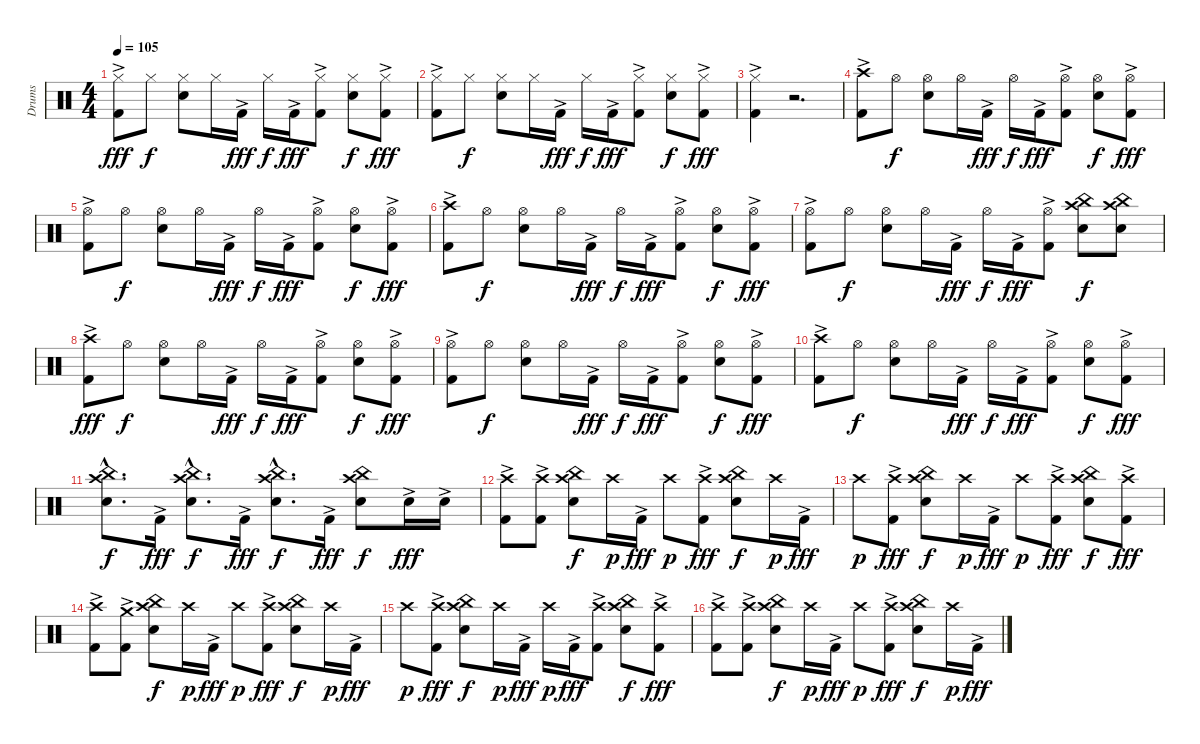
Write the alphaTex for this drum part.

\track ("Drums" "Drums") {instrument percussion}
\staff {score}
\articulation defaults
\ts (4 4)
\tempo 105
\clef neutral
\ks aminor
("Hi-Hat (closed)" "Kick (hit) 2"{ac}).8{dy fff} "Hi-Hat (closed)".8{dy f} ("Hi-Hat (closed)" "Snare (hit) 2").8 "Hi-Hat (closed)".16 "Kick (hit) 2"{ac}.16{dy fff} "Hi-Hat (closed)".16{dy f} "Kick (hit) 2"{ac}.16{dy fff} ("Hi-Hat (closed)" "Kick (hit) 2"{ac}).8 ("Hi-Hat (closed)" "Snare (hit) 2").8{dy f} ("Hi-Hat (closed)" "Kick (hit) 2"{ac}).8{dy fff} |
("Hi-Hat (closed)" "Kick (hit) 2"{ac}).8 "Hi-Hat (closed)".8{dy f} ("Hi-Hat (closed)" "Snare (hit) 2").8 "Hi-Hat (closed)".16 "Kick (hit) 2"{ac}.16{dy fff} "Hi-Hat (closed)".16{dy f} "Kick (hit) 2"{ac}.16{dy fff} ("Hi-Hat (closed)" "Kick (hit) 2"{ac}).8 ("Hi-Hat (closed)" "Snare (hit) 2").8{dy f} ("Hi-Hat (closed)" "Kick (hit) 2"{ac}).8{dy fff} |
("Hi-Hat (closed)" "Kick (hit) 2"{ac}).4 r.2{d} |
("Crash high (hit)" "Kick (hit) 2"{ac}).8 "Hi-Hat (open)".8{dy f} ("Hi-Hat (open)" "Snare (hit) 2").8 "Hi-Hat (open)".16 "Kick (hit) 2"{ac}.16{dy fff} "Hi-Hat (open)".16{dy f} "Kick (hit) 2"{ac}.16{dy fff} ("Hi-Hat (open)" "Kick (hit) 2"{ac}).8 ("Hi-Hat (open)" "Snare (hit) 2").8{dy f} ("Hi-Hat (open)" "Kick (hit) 2"{ac}).8{dy fff} |
("Hi-Hat (open)" "Kick (hit) 2"{ac}).8 "Hi-Hat (open)".8{dy f} ("Hi-Hat (open)" "Snare (hit) 2").8 "Hi-Hat (open)".16 "Kick (hit) 2"{ac}.16{dy fff} "Hi-Hat (open)".16{dy f} "Kick (hit) 2"{ac}.16{dy fff} ("Hi-Hat (open)" "Kick (hit) 2"{ac}).8 ("Hi-Hat (open)" "Snare (hit) 2").8{dy f} ("Hi-Hat (open)" "Kick (hit) 2"{ac}).8{dy fff} |
("Crash high (hit)" "Kick (hit) 2"{ac}).8 "Hi-Hat (open)".8{dy f} ("Hi-Hat (open)" "Snare (hit) 2").8 "Hi-Hat (open)".16 "Kick (hit) 2"{ac}.16{dy fff} "Hi-Hat (open)".16{dy f} "Kick (hit) 2"{ac}.16{dy fff} ("Hi-Hat (open)" "Kick (hit) 2"{ac}).8 ("Hi-Hat (open)" "Snare (hit) 2").8{dy f} ("Hi-Hat (open)" "Kick (hit) 2"{ac}).8{dy fff} |
("Hi-Hat (open)" "Kick (hit) 2"{ac}).8 "Hi-Hat (open)".8{dy f} ("Hi-Hat (open)" "Snare (hit) 2").8 "Hi-Hat (open)".16 "Kick (hit) 2"{ac}.16{dy fff} "Hi-Hat (open)".16{dy f} "Kick (hit) 2"{ac}.16{dy fff} ("Hi-Hat (open)" "Kick (hit) 2"{ac}).8 ("Crash high (hit)" "China (hit)" "Snare (hit) 2").8{dy f} ("Crash high (hit)" "China (hit)" "Snare (hit) 2").8 |
("Crash high (hit)" "Kick (hit) 2"{ac}).8{dy fff} "Hi-Hat (open)".8{dy f} ("Hi-Hat (open)" "Snare (hit) 2").8 "Hi-Hat (open)".16 "Kick (hit) 2"{ac}.16{dy fff} "Hi-Hat (open)".16{dy f} "Kick (hit) 2"{ac}.16{dy fff} ("Hi-Hat (open)" "Kick (hit) 2"{ac}).8 ("Hi-Hat (open)" "Snare (hit) 2").8{dy f} ("Hi-Hat (open)" "Kick (hit) 2"{ac}).8{dy fff} |
("Hi-Hat (open)" "Kick (hit) 2"{ac}).8 "Hi-Hat (open)".8{dy f} ("Hi-Hat (open)" "Snare (hit) 2").8 "Hi-Hat (open)".16 "Kick (hit) 2"{ac}.16{dy fff} "Hi-Hat (open)".16{dy f} "Kick (hit) 2"{ac}.16{dy fff} ("Hi-Hat (open)" "Kick (hit) 2"{ac}).8 ("Hi-Hat (open)" "Snare (hit) 2").8{dy f} ("Hi-Hat (open)" "Kick (hit) 2"{ac}).8{dy fff} |
("Crash high (hit)" "Kick (hit) 2"{ac}).8 "Hi-Hat (open)".8{dy f} ("Hi-Hat (open)" "Snare (hit) 2").8 "Hi-Hat (open)".16 "Kick (hit) 2"{ac}.16{dy fff} "Hi-Hat (open)".16{dy f} "Kick (hit) 2"{ac}.16{dy fff} ("Hi-Hat (open)" "Kick (hit) 2"{ac}).8 ("Hi-Hat (open)" "Snare (hit) 2").8{dy f} ("Hi-Hat (open)" "Kick (hit) 2"{ac}).8{dy fff} |
("Crash high (hit)"{hac} "China (hit)"{hac} "Snare (hit) 2"{hac}).8{d dy f} "Kick (hit) 2"{ac}.16{dy fff} ("Crash high (hit)"{hac} "China (hit)"{hac} "Snare (hit) 2"{hac}).8{d dy f} "Kick (hit) 2"{ac}.16{dy fff} ("Crash high (hit)"{hac} "China (hit)"{hac} "Snare (hit) 2"{hac}).8{d dy f} "Kick (hit) 2"{ac}.16{dy fff} ("Crash high (hit)" "China (hit)" "Snare (hit) 2").8{dy f} "Snare (hit) 2"{ac}.16{dy fff} "Snare (hit) 2"{ac}.16 |
("Crash high (hit)" "Kick (hit) 2"{ac}).8 ("Crash high (hit)" "Kick (hit) 2"{ac}).8 ("Crash high (hit)" "China (hit)" "Snare (hit) 2").8{dy f} "Crash high (hit)".16{dy p} "Kick (hit) 2"{ac}.16{dy fff} "Crash high (hit)".8{dy p} ("Crash high (hit)" "Kick (hit) 2"{ac}).8{dy fff} ("Crash high (hit)" "China (hit)" "Snare (hit) 2").8{dy f} "Crash high (hit)".16{dy p} "Kick (hit) 2"{ac}.16{dy fff} |
"Crash high (hit)".8{dy p} ("Crash high (hit)" "Kick (hit) 2"{ac}).8{dy fff} ("Crash high (hit)" "China (hit)" "Snare (hit) 2").8{dy f} "Crash high (hit)".16{dy p} "Kick (hit) 2"{ac}.16{dy fff} "Crash high (hit)".8{dy p} ("Crash high (hit)" "Kick (hit) 2"{ac}).8{dy fff} ("Crash high (hit)" "China (hit)" "Snare (hit) 2").8{dy f} ("Crash high (hit)" "Kick (hit) 2"{ac}).8{dy fff} |
("Crash high (hit)" "Kick (hit) 2"{ac}).8 ("Crash medium (hit)" "Kick (hit) 2"{ac}).8 ("Crash high (hit)" "China (hit)" "Snare (hit) 2").8{dy f} "Crash high (hit)".16{dy p} "Kick (hit) 2"{ac}.16{dy fff} "Crash high (hit)".8{dy p} ("Crash high (hit)" "Kick (hit) 2"{ac}).8{dy fff} ("Crash high (hit)" "China (hit)" "Snare (hit) 2").8{dy f} "Crash high (hit)".16{dy p} "Kick (hit) 2"{ac}.16{dy fff} |
"Crash high (hit)".8{dy p} ("Crash high (hit)" "Kick (hit) 2"{ac}).8{dy fff} ("Crash high (hit)" "China (hit)" "Snare (hit) 2").8{dy f} "Crash high (hit)".16{dy p} "Kick (hit) 2"{ac}.16{dy fff} "Crash high (hit)".16{dy p} "Kick (hit) 2"{ac}.16{dy fff} ("Crash high (hit)" "Kick (hit) 2"{ac}).8 ("Crash high (hit)" "China (hit)" "Snare (hit) 2").8{dy f} ("Crash high (hit)" "Kick (hit) 2"{ac}).8{dy fff} |
("Crash high (hit)" "Kick (hit) 2"{ac}).8 ("Crash high (hit)" "Kick (hit) 2"{ac}).8 ("Crash high (hit)" "China (hit)" "Snare (hit) 2").8{dy f} "Crash high (hit)".16{dy p} "Kick (hit) 2"{ac}.16{dy fff} "Crash high (hit)".8{dy p} ("Crash high (hit)" "Kick (hit) 2"{ac}).8{dy fff} ("Crash high (hit)" "China (hit)" "Snare (hit) 2").8{dy f} "Crash high (hit)".16{dy p} "Kick (hit) 2"{ac}.16{dy fff}
